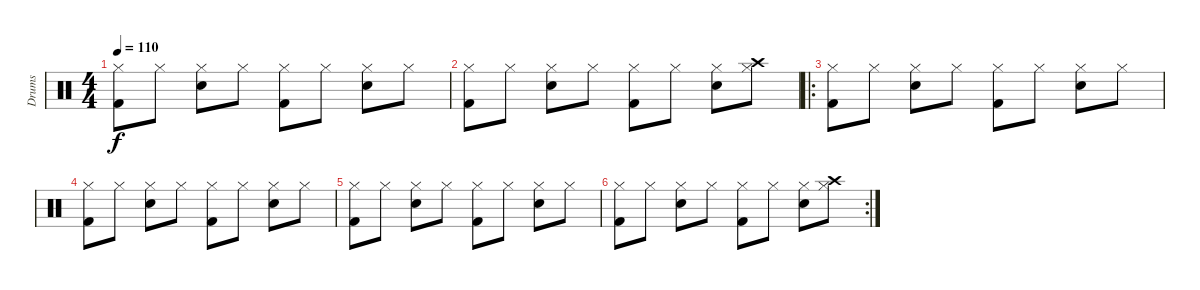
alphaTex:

\track ("Drums" "Drums") {instrument percussion}
\staff {score}
\articulation defaults
\ts (4 4)
\tempo 110
\clef neutral
\ks c
("Hi-Hat (closed)" "Kick (hit) 2").8{dy f} "Hi-Hat (closed)".8 ("Hi-Hat (closed)" "Snare (hit) 2").8 "Hi-Hat (closed)".8 ("Hi-Hat (closed)" "Kick (hit) 2").8 "Hi-Hat (closed)".8 ("Hi-Hat (closed)" "Snare (hit) 2").8 "Hi-Hat (closed)".8 |
("Hi-Hat (closed)" "Kick (hit) 2").8 "Hi-Hat (closed)".8 ("Hi-Hat (closed)" "Snare (hit) 2").8 "Hi-Hat (closed)".8 ("Hi-Hat (closed)" "Kick (hit) 2").8 "Hi-Hat (closed)".8 ("Hi-Hat (closed)" "Snare (hit) 2").8 ("Hi-Hat (closed)" "Crash high (hit)").8 |
\ro
("Hi-Hat (closed)" "Kick (hit) 2").8 "Hi-Hat (closed)".8 ("Hi-Hat (closed)" "Snare (hit) 2").8 "Hi-Hat (closed)".8 ("Hi-Hat (closed)" "Kick (hit) 2").8 "Hi-Hat (closed)".8 ("Hi-Hat (closed)" "Snare (hit) 2").8 "Hi-Hat (closed)".8 |
("Hi-Hat (closed)" "Kick (hit) 2").8 "Hi-Hat (closed)".8 ("Hi-Hat (closed)" "Snare (hit) 2").8 "Hi-Hat (closed)".8 ("Hi-Hat (closed)" "Kick (hit) 2").8 "Hi-Hat (closed)".8 ("Hi-Hat (closed)" "Snare (hit) 2").8 "Hi-Hat (closed)".8 |
("Hi-Hat (closed)" "Kick (hit) 2").8 "Hi-Hat (closed)".8 ("Hi-Hat (closed)" "Snare (hit) 2").8 "Hi-Hat (closed)".8 ("Hi-Hat (closed)" "Kick (hit) 2").8 "Hi-Hat (closed)".8 ("Hi-Hat (closed)" "Snare (hit) 2").8 "Hi-Hat (closed)".8 |
\rc 2
("Hi-Hat (closed)" "Kick (hit) 2").8 "Hi-Hat (closed)".8 ("Hi-Hat (closed)" "Snare (hit) 2").8 "Hi-Hat (closed)".8 ("Hi-Hat (closed)" "Kick (hit) 2").8 "Hi-Hat (closed)".8 ("Hi-Hat (closed)" "Snare (hit) 2").8 ("Hi-Hat (closed)" "Crash high (hit)").8
